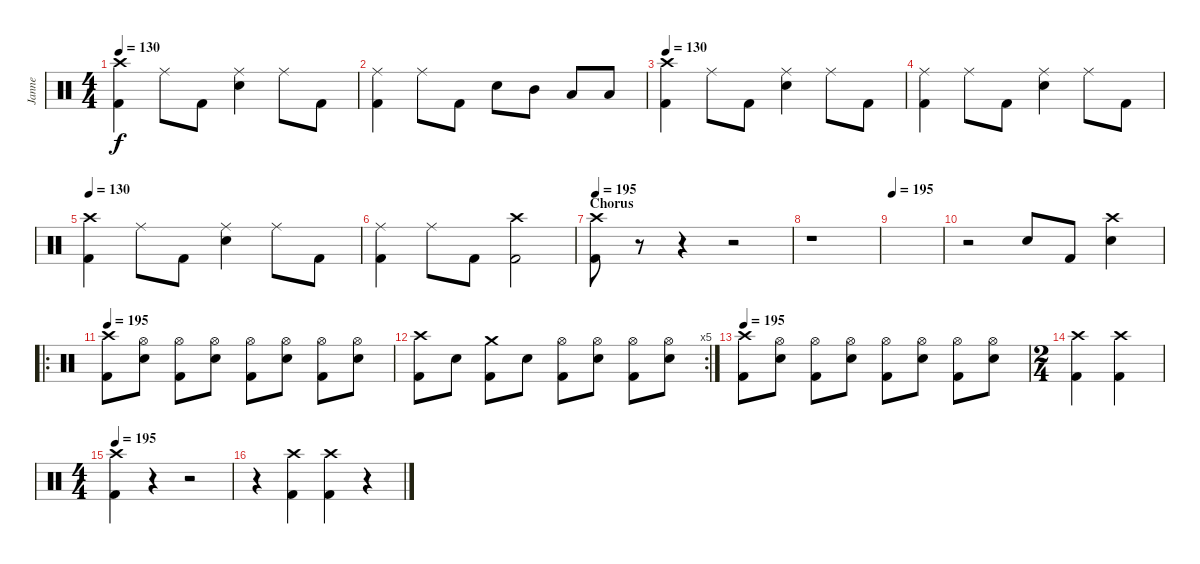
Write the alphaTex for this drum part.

\track ("Janne" "Janne") {instrument percussion}
\staff {score}
\articulation defaults
\ts (4 4)
\tempo 130
\clef neutral
\ks c
("Crash high (hit)" "Kick (hit) 2").4{dy f} "Ride (middle)".8 "Kick (hit) 2".8 ("Ride (middle)" "Electric Snare (hit)").4 "Ride (middle)".8 "Kick (hit) 2".8 |
("Ride (middle)" "Kick (hit) 2").4 "Ride (middle)".8 "Kick (hit) 2".8 "Electric Snare (hit)".8 "Mid Tom (hit)".8 "Low Tom (hit)".8 "Low Floor Tom (hit)".8 |
\tempo 130
("Crash high (hit)" "Kick (hit) 2").4 "Ride (middle)".8 "Kick (hit) 2".8 ("Ride (middle)" "Electric Snare (hit)").4 "Ride (middle)".8 "Kick (hit) 2".8 |
("Ride (middle)" "Kick (hit) 2").4 "Ride (middle)".8 "Kick (hit) 2".8 ("Ride (middle)" "Electric Snare (hit)").4 "Ride (middle)".8 "Kick (hit) 2".8 |
\tempo 130
("Crash high (hit)" "Kick (hit) 2").4 "Ride (middle)".8 "Kick (hit) 2".8 ("Ride (middle)" "Electric Snare (hit)").4 "Ride (middle)".8 "Kick (hit) 2".8 |
("Ride (middle)" "Kick (hit) 2").4 "Ride (middle)".8 "Kick (hit) 2".8 ("Crash high (hit)" "Kick (hit) 2").2 |
\section ("" "Chorus")
\tempo 195
("Crash high (hit)" "Kick (hit) 2").8 r.8 r.4 r.2 |
r.1 |
\tempo 195
|
r.2 "Electric Snare (hit)".8 "Kick (hit) 2".8 ("Crash high (hit)" "Electric Snare (hit)").4 |
\ro
\tempo 195
("Crash high (hit)" "Kick (hit) 2").8 ("Hi-Hat (open)" "Electric Snare (hit)").8 ("Hi-Hat (open)" "Kick (hit) 2").8 ("Hi-Hat (open)" "Electric Snare (hit)").8 ("Hi-Hat (open)" "Kick (hit) 2").8 ("Hi-Hat (open)" "Electric Snare (hit)").8 ("Hi-Hat (open)" "Kick (hit) 2").8 ("Hi-Hat (open)" "Electric Snare (hit)").8 |
\rc 5
("Crash high (hit)" "Kick (hit) 2").8 "Electric Snare (hit)".8 ("Crash medium (hit)" "Kick (hit) 2").8 "Electric Snare (hit)".8 ("Hi-Hat (open)" "Kick (hit) 2").8 ("Hi-Hat (open)" "Electric Snare (hit)").8 ("Hi-Hat (open)" "Kick (hit) 2").8 ("Hi-Hat (open)" "Electric Snare (hit)").8 |
\tempo 195
("Crash high (hit)" "Kick (hit) 2").8 ("Hi-Hat (open)" "Electric Snare (hit)").8 ("Hi-Hat (open)" "Kick (hit) 2").8 ("Hi-Hat (open)" "Electric Snare (hit)").8 ("Hi-Hat (open)" "Kick (hit) 2").8 ("Hi-Hat (open)" "Electric Snare (hit)").8 ("Hi-Hat (open)" "Kick (hit) 2").8 ("Hi-Hat (open)" "Electric Snare (hit)").8 |
\ts (2 4)
("Crash high (hit)" "Kick (hit) 2").4 ("Crash high (hit)" "Kick (hit) 2").4 |
\ts (4 4)
\tempo 195
("Crash high (hit)" "Kick (hit) 2").4 r.4 r.2 |
r.4 ("Crash high (hit)" "Kick (hit) 2").4 ("Crash high (hit)" "Kick (hit) 2").4 r.4
